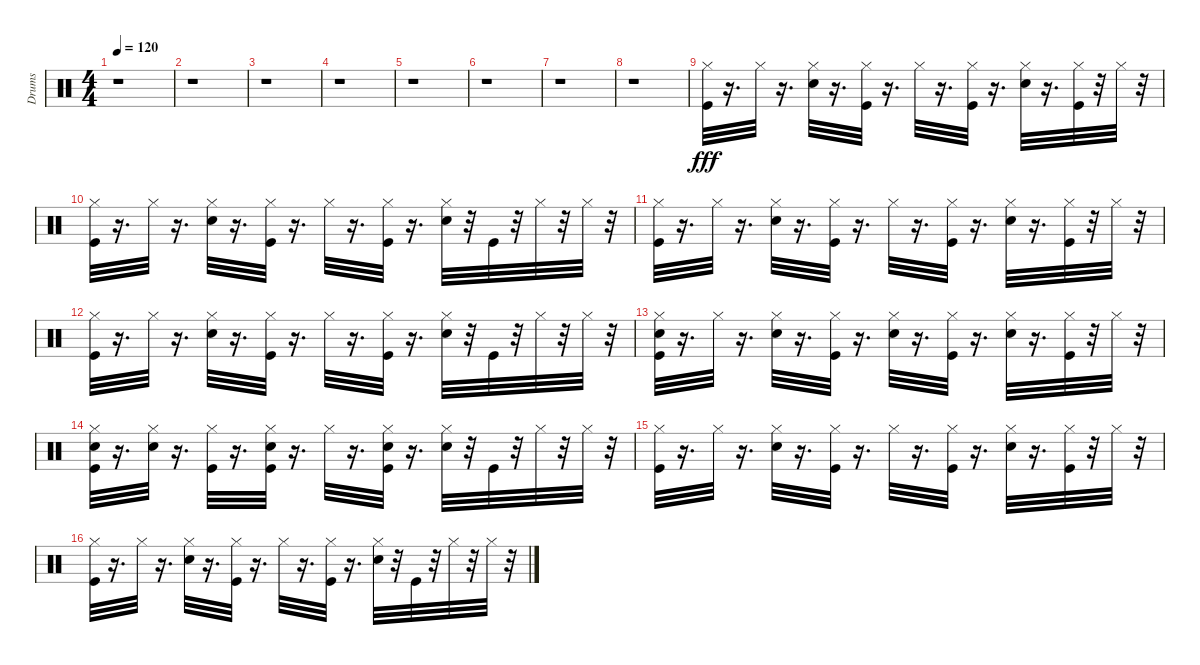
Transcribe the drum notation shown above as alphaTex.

\track ("Drums" "Drums") {solo instrument percussion}
\staff {score}
\articulation defaults
\ts (4 4)
\tempo 120
\clef neutral
\ks c
r.1{dy fff} |
r.1 |
r.1 |
r.1 |
r.1 |
r.1 |
r.1 |
r.1 |
("Kick (hit)" "Hi-Hat (closed)").32 r.16{d} "Hi-Hat (closed)".32 r.16{d} ("Snare (hit) 2" "Hi-Hat (closed)").32 r.16{d} ("Kick (hit)" "Hi-Hat (closed)").32 r.16{d} "Hi-Hat (closed)".32 r.16{d} ("Kick (hit)" "Hi-Hat (closed)").32 r.16{d} ("Snare (hit) 2" "Hi-Hat (closed)").32 r.16{d} ("Kick (hit)" "Hi-Hat (closed)").32 r.32 "Hi-Hat (closed)".32 r.32 |
("Kick (hit)" "Hi-Hat (closed)").32 r.16{d} "Hi-Hat (closed)".32 r.16{d} ("Snare (hit) 2" "Hi-Hat (closed)").32 r.16{d} ("Kick (hit)" "Hi-Hat (closed)").32 r.16{d} "Hi-Hat (closed)".32 r.16{d} ("Kick (hit)" "Hi-Hat (closed)").32 r.16{d} ("Snare (hit) 2" "Hi-Hat (closed)").32 r.32 "Kick (hit)".32 r.32 "Hi-Hat (closed)".32 r.32 "Hi-Hat (closed)".32 r.32 |
("Kick (hit)" "Hi-Hat (closed)").32 r.16{d} "Hi-Hat (closed)".32 r.16{d} ("Snare (hit) 2" "Hi-Hat (closed)").32 r.16{d} ("Kick (hit)" "Hi-Hat (closed)").32 r.16{d} "Hi-Hat (closed)".32 r.16{d} ("Kick (hit)" "Hi-Hat (closed)").32 r.16{d} ("Snare (hit) 2" "Hi-Hat (closed)").32 r.16{d} ("Kick (hit)" "Hi-Hat (closed)").32 r.32 "Hi-Hat (closed)".32 r.32 |
("Kick (hit)" "Hi-Hat (closed)").32 r.16{d} "Hi-Hat (closed)".32 r.16{d} ("Snare (hit) 2" "Hi-Hat (closed)").32 r.16{d} ("Kick (hit)" "Hi-Hat (closed)").32 r.16{d} "Hi-Hat (closed)".32 r.16{d} ("Kick (hit)" "Hi-Hat (closed)").32 r.16{d} ("Snare (hit) 2" "Hi-Hat (closed)").32 r.32 "Kick (hit)".32 r.32 "Hi-Hat (closed)".32 r.32 "Hi-Hat (closed)".32 r.32 |
("Kick (hit)" "Snare (hit) 2" "Hi-Hat (closed)").32 r.16{d} "Hi-Hat (closed)".32 r.16{d} ("Snare (hit) 2" "Hi-Hat (closed)").32 r.16{d} ("Kick (hit)" "Hi-Hat (closed)").32 r.16{d} ("Snare (hit) 2" "Hi-Hat (closed)").32 r.16{d} ("Kick (hit)" "Hi-Hat (closed)").32 r.16{d} ("Snare (hit) 2" "Hi-Hat (closed)").32 r.16{d} ("Kick (hit)" "Hi-Hat (closed)").32 r.32 "Hi-Hat (closed)".32 r.32 |
("Kick (hit)" "Snare (hit) 2" "Hi-Hat (closed)").32 r.16{d} ("Snare (hit) 2" "Hi-Hat (closed)").32 r.16{d} ("Kick (hit)" "Hi-Hat (closed)").32 r.16{d} ("Kick (hit)" "Snare (hit) 2" "Hi-Hat (closed)").32 r.16{d} "Hi-Hat (closed)".32 r.16{d} ("Kick (hit)" "Snare (hit) 2" "Hi-Hat (closed)").32 r.16{d} ("Snare (hit) 2" "Hi-Hat (closed)").32 r.32 "Kick (hit)".32 r.32 "Hi-Hat (closed)".32 r.32 "Hi-Hat (closed)".32 r.32 |
("Kick (hit)" "Hi-Hat (closed)").32 r.16{d} "Hi-Hat (closed)".32 r.16{d} ("Snare (hit) 2" "Hi-Hat (closed)").32 r.16{d} ("Kick (hit)" "Hi-Hat (closed)").32 r.16{d} "Hi-Hat (closed)".32 r.16{d} ("Kick (hit)" "Hi-Hat (closed)").32 r.16{d} ("Snare (hit) 2" "Hi-Hat (closed)").32 r.16{d} ("Kick (hit)" "Hi-Hat (closed)").32 r.32 "Hi-Hat (closed)".32 r.32 |
("Kick (hit)" "Hi-Hat (closed)").32 r.16{d} "Hi-Hat (closed)".32 r.16{d} ("Snare (hit) 2" "Hi-Hat (closed)").32 r.16{d} ("Kick (hit)" "Hi-Hat (closed)").32 r.16{d} "Hi-Hat (closed)".32 r.16{d} ("Kick (hit)" "Hi-Hat (closed)").32 r.16{d} ("Snare (hit) 2" "Hi-Hat (closed)").32 r.32 "Kick (hit)".32 r.32 "Hi-Hat (closed)".32 r.32 "Hi-Hat (closed)".32 r.32
